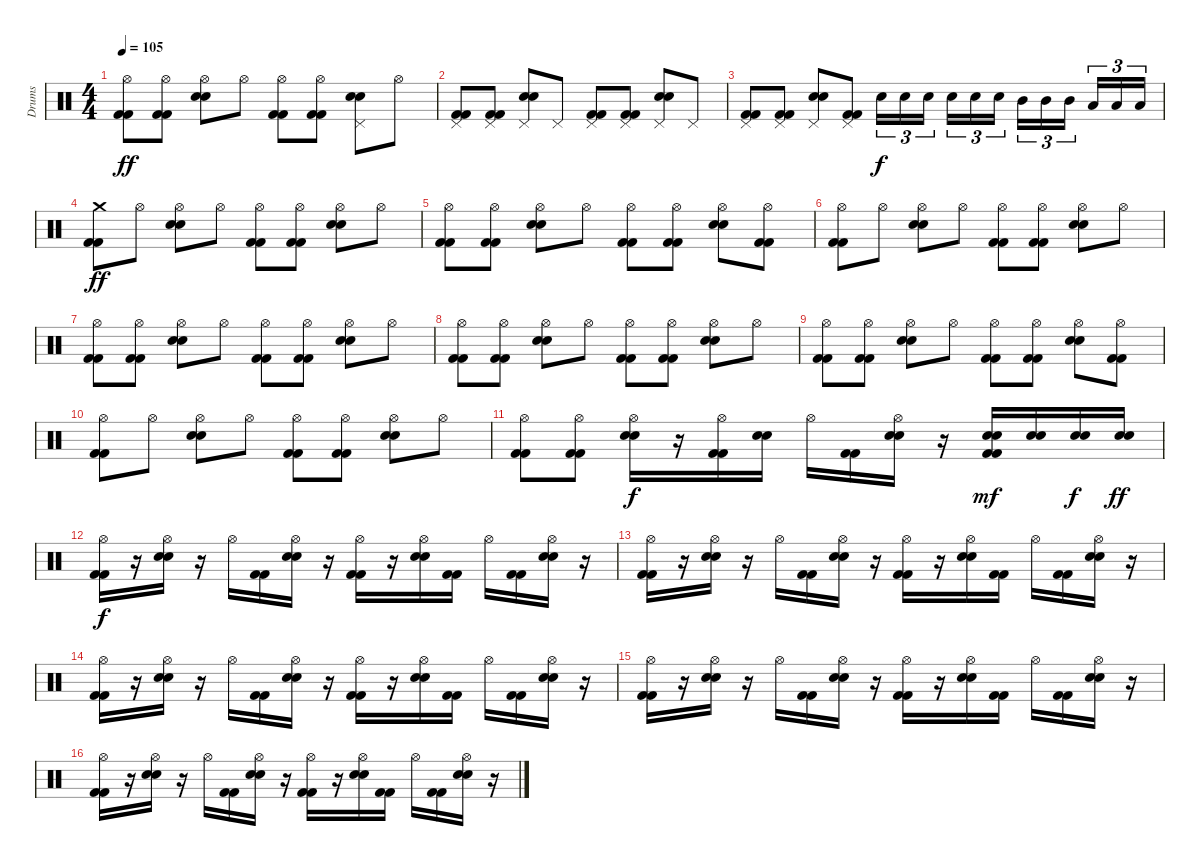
\track ("Drums" "Drums") {instrument percussion}
\staff {score}
\articulation defaults
\ts (4 4)
\tempo 105
\clef neutral
\ks c
("Hi-Hat (open)" "Kick (hit) 2" "Kick (hit) 2").8{dy ff} ("Hi-Hat (open)" "Kick (hit) 2" "Kick (hit) 2").8 ("Hi-Hat (open)" "Electric Snare (hit)" "Snare (hit) 2").8 "Hi-Hat (open)".8 ("Hi-Hat (open)" "Kick (hit) 2" "Kick (hit) 2").8 ("Hi-Hat (open)" "Kick (hit) 2" "Kick (hit) 2").8 ("Pedal Hi-Hat (hit)" "Electric Snare (hit)" "Snare (hit) 2").8 "Hi-Hat (open)".8 |
("Pedal Hi-Hat (hit)" "Kick (hit) 2" "Kick (hit) 2").8 ("Pedal Hi-Hat (hit)" "Kick (hit) 2" "Kick (hit) 2").8 ("Pedal Hi-Hat (hit)" "Electric Snare (hit)" "Snare (hit) 2").8 "Pedal Hi-Hat (hit)".8 ("Pedal Hi-Hat (hit)" "Kick (hit) 2" "Kick (hit) 2").8 ("Pedal Hi-Hat (hit)" "Kick (hit) 2" "Kick (hit) 2").8 ("Pedal Hi-Hat (hit)" "Electric Snare (hit)" "Snare (hit) 2").8 "Pedal Hi-Hat (hit)".8 |
("Pedal Hi-Hat (hit)" "Kick (hit) 2" "Kick (hit) 2").8 ("Pedal Hi-Hat (hit)" "Kick (hit) 2" "Kick (hit) 2").8 ("Pedal Hi-Hat (hit)" "Electric Snare (hit)" "Snare (hit) 2").8 ("Pedal Hi-Hat (hit)" "Kick (hit) 2" "Kick (hit) 2").8 "Electric Snare (hit)".16{tu (3 2) dy f} "Electric Snare (hit)".16{tu (3 2)} "Electric Snare (hit)".16{tu (3 2) beam splitsecondary} "Electric Snare (hit)".16{tu (3 2)} "Electric Snare (hit)".16{tu (3 2)} "Electric Snare (hit)".16{tu (3 2)} "Mid Tom (hit)".16{tu (3 2)} "Mid Tom (hit)".16{tu (3 2)} "Mid Tom (hit)".16{tu (3 2) beam splitsecondary} "Low Tom (hit)".16{tu (3 2)} "Low Tom (hit)".16{tu (3 2)} "Low Tom (hit)".16{tu (3 2)} |
("Crash medium (hit)" "Kick (hit) 2" "Kick (hit) 2").8{dy ff} "Hi-Hat (open)".8 ("Hi-Hat (open)" "Electric Snare (hit)" "Snare (hit) 2").8 "Hi-Hat (open)".8 ("Hi-Hat (open)" "Kick (hit) 2" "Kick (hit) 2").8 ("Hi-Hat (open)" "Kick (hit) 2" "Kick (hit) 2").8 ("Hi-Hat (open)" "Electric Snare (hit)" "Snare (hit) 2").8 "Hi-Hat (open)".8 |
("Hi-Hat (open)" "Kick (hit) 2" "Kick (hit) 2").8 ("Hi-Hat (open)" "Kick (hit) 2" "Kick (hit) 2").8 ("Hi-Hat (open)" "Electric Snare (hit)" "Snare (hit) 2").8 "Hi-Hat (open)".8 ("Hi-Hat (open)" "Kick (hit) 2" "Kick (hit) 2").8 ("Hi-Hat (open)" "Kick (hit) 2" "Kick (hit) 2").8 ("Hi-Hat (open)" "Electric Snare (hit)" "Snare (hit) 2").8 ("Hi-Hat (open)" "Kick (hit) 2" "Kick (hit) 2").8 |
("Hi-Hat (open)" "Kick (hit) 2" "Kick (hit) 2").8 "Hi-Hat (open)".8 ("Hi-Hat (open)" "Electric Snare (hit)" "Snare (hit) 2").8 "Hi-Hat (open)".8 ("Hi-Hat (open)" "Kick (hit) 2" "Kick (hit) 2").8 ("Hi-Hat (open)" "Kick (hit) 2" "Kick (hit) 2").8 ("Hi-Hat (open)" "Electric Snare (hit)" "Snare (hit) 2").8 "Hi-Hat (open)".8 |
("Hi-Hat (open)" "Kick (hit) 2" "Kick (hit) 2").8 ("Hi-Hat (open)" "Kick (hit) 2" "Kick (hit) 2").8 ("Hi-Hat (open)" "Electric Snare (hit)" "Snare (hit) 2").8 "Hi-Hat (open)".8 ("Hi-Hat (open)" "Kick (hit) 2" "Kick (hit) 2").8 ("Hi-Hat (open)" "Kick (hit) 2" "Kick (hit) 2").8 ("Hi-Hat (open)" "Electric Snare (hit)" "Snare (hit) 2").8 "Hi-Hat (open)".8 |
("Hi-Hat (open)" "Kick (hit) 2" "Kick (hit) 2").8 ("Hi-Hat (open)" "Kick (hit) 2" "Kick (hit) 2").8 ("Hi-Hat (open)" "Electric Snare (hit)" "Snare (hit) 2").8 "Hi-Hat (open)".8 ("Hi-Hat (open)" "Kick (hit) 2" "Kick (hit) 2").8 ("Hi-Hat (open)" "Kick (hit) 2" "Kick (hit) 2").8 ("Hi-Hat (open)" "Electric Snare (hit)" "Snare (hit) 2").8 "Hi-Hat (open)".8 |
("Hi-Hat (open)" "Kick (hit) 2" "Kick (hit) 2").8 ("Hi-Hat (open)" "Kick (hit) 2" "Kick (hit) 2").8 ("Hi-Hat (open)" "Electric Snare (hit)" "Snare (hit) 2").8 "Hi-Hat (open)".8 ("Hi-Hat (open)" "Kick (hit) 2" "Kick (hit) 2").8 ("Hi-Hat (open)" "Kick (hit) 2" "Kick (hit) 2").8 ("Hi-Hat (open)" "Electric Snare (hit)" "Snare (hit) 2").8 ("Hi-Hat (open)" "Kick (hit) 2" "Kick (hit) 2").8 |
("Hi-Hat (open)" "Kick (hit) 2" "Kick (hit) 2").8 "Hi-Hat (open)".8 ("Hi-Hat (open)" "Electric Snare (hit)" "Snare (hit) 2").8 "Hi-Hat (open)".8 ("Hi-Hat (open)" "Kick (hit) 2" "Kick (hit) 2").8 ("Hi-Hat (open)" "Kick (hit) 2" "Kick (hit) 2").8 ("Hi-Hat (open)" "Electric Snare (hit)" "Snare (hit) 2").8 "Hi-Hat (open)".8 |
("Hi-Hat (open)" "Kick (hit) 2" "Kick (hit) 2").8 ("Hi-Hat (open)" "Kick (hit) 2" "Kick (hit) 2").8 ("Hi-Hat (open)" "Electric Snare (hit)" "Snare (hit) 2").16{dy f} r.16 ("Hi-Hat (open)" "Kick (hit) 2" "Kick (hit) 2").16 ("Electric Snare (hit)" "Snare (hit) 2").16 "Hi-Hat (open)".16 ("Kick (hit) 2" "Kick (hit) 2").16 ("Hi-Hat (open)" "Electric Snare (hit)" "Snare (hit) 2").16 r.16 ("Electric Snare (hit)" "Snare (hit) 2" "Kick (hit) 2" "Kick (hit) 2").16{dy mf} ("Electric Snare (hit)" "Snare (hit) 2").16 ("Electric Snare (hit)" "Snare (hit) 2").16{dy f} ("Electric Snare (hit)" "Snare (hit) 2").16{dy ff} |
("Hi-Hat (open)" "Kick (hit) 2" "Kick (hit) 2").16{dy f} r.16 ("Hi-Hat (open)" "Electric Snare (hit)" "Snare (hit) 2").16 r.16 "Hi-Hat (open)".16 ("Kick (hit) 2" "Kick (hit) 2").16 ("Hi-Hat (open)" "Electric Snare (hit)" "Snare (hit) 2").16 r.16 ("Hi-Hat (open)" "Kick (hit) 2" "Kick (hit) 2").16 r.16 ("Hi-Hat (open)" "Electric Snare (hit)" "Snare (hit) 2").16 ("Kick (hit) 2" "Kick (hit) 2").16 "Hi-Hat (open)".16 ("Kick (hit) 2" "Kick (hit) 2").16 ("Hi-Hat (open)" "Electric Snare (hit)" "Snare (hit) 2").16 r.16 |
("Hi-Hat (open)" "Kick (hit) 2" "Kick (hit) 2").16 r.16 ("Hi-Hat (open)" "Electric Snare (hit)" "Snare (hit) 2").16 r.16 "Hi-Hat (open)".16 ("Kick (hit) 2" "Kick (hit) 2").16 ("Hi-Hat (open)" "Electric Snare (hit)" "Snare (hit) 2").16 r.16 ("Hi-Hat (open)" "Kick (hit) 2" "Kick (hit) 2").16 r.16 ("Hi-Hat (open)" "Electric Snare (hit)" "Snare (hit) 2").16 ("Kick (hit) 2" "Kick (hit) 2").16 "Hi-Hat (open)".16 ("Kick (hit) 2" "Kick (hit) 2").16 ("Hi-Hat (open)" "Electric Snare (hit)" "Snare (hit) 2").16 r.16 |
("Hi-Hat (open)" "Kick (hit) 2" "Kick (hit) 2").16 r.16 ("Hi-Hat (open)" "Electric Snare (hit)" "Snare (hit) 2").16 r.16 "Hi-Hat (open)".16 ("Kick (hit) 2" "Kick (hit) 2").16 ("Hi-Hat (open)" "Electric Snare (hit)" "Snare (hit) 2").16 r.16 ("Hi-Hat (open)" "Kick (hit) 2" "Kick (hit) 2").16 r.16 ("Hi-Hat (open)" "Electric Snare (hit)" "Snare (hit) 2").16 ("Kick (hit) 2" "Kick (hit) 2").16 "Hi-Hat (open)".16 ("Kick (hit) 2" "Kick (hit) 2").16 ("Hi-Hat (open)" "Electric Snare (hit)" "Snare (hit) 2").16 r.16 |
("Hi-Hat (open)" "Kick (hit) 2" "Kick (hit) 2").16 r.16 ("Hi-Hat (open)" "Electric Snare (hit)" "Snare (hit) 2").16 r.16 "Hi-Hat (open)".16 ("Kick (hit) 2" "Kick (hit) 2").16 ("Hi-Hat (open)" "Electric Snare (hit)" "Snare (hit) 2").16 r.16 ("Hi-Hat (open)" "Kick (hit) 2" "Kick (hit) 2").16 r.16 ("Hi-Hat (open)" "Electric Snare (hit)" "Snare (hit) 2").16 ("Kick (hit) 2" "Kick (hit) 2").16 "Hi-Hat (open)".16 ("Kick (hit) 2" "Kick (hit) 2").16 ("Hi-Hat (open)" "Electric Snare (hit)" "Snare (hit) 2").16 r.16 |
("Hi-Hat (open)" "Kick (hit) 2" "Kick (hit) 2").16 r.16 ("Hi-Hat (open)" "Electric Snare (hit)" "Snare (hit) 2").16 r.16 "Hi-Hat (open)".16 ("Kick (hit) 2" "Kick (hit) 2").16 ("Hi-Hat (open)" "Electric Snare (hit)" "Snare (hit) 2").16 r.16 ("Hi-Hat (open)" "Kick (hit) 2" "Kick (hit) 2").16 r.16 ("Hi-Hat (open)" "Electric Snare (hit)" "Snare (hit) 2").16 ("Kick (hit) 2" "Kick (hit) 2").16 "Hi-Hat (open)".16 ("Kick (hit) 2" "Kick (hit) 2").16 ("Hi-Hat (open)" "Electric Snare (hit)" "Snare (hit) 2").16 r.16
